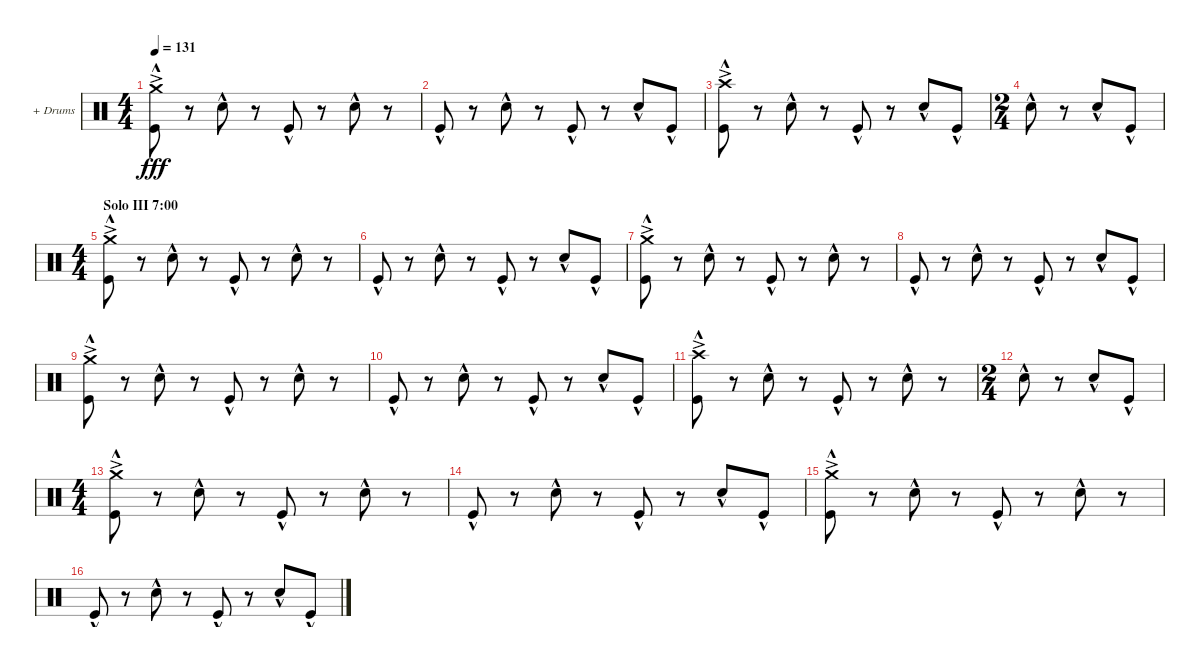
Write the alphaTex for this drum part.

\defaultSystemsLayout 4
\bracketExtendMode groupsimilarinstruments
\firstSystemTrackNameOrientation horizontal
\otherSystemsTrackNameOrientation horizontal
\track ("+ Drums" "+ Drums") {instrument percussion}
\staff {score}
\articulation defaults
\ts (4 4)
\tempo 131
\clef neutral
\ks c
("Crash medium (hit)"{ac} "Kick (hit)"{hac}).8{dy fff} r.8 "Snare (hit) 2"{hac}.8 r.8 "Kick (hit)"{hac}.8 r.8 "Snare (hit) 2"{hac}.8 r.8 |
"Kick (hit)"{hac}.8 r.8 "Snare (hit) 2"{hac}.8 r.8 "Kick (hit)"{hac}.8 r.8 "Snare (hit) 2"{hac}.8 "Kick (hit)"{hac}.8 |
("Crash high (hit)"{ac} "Kick (hit)"{hac}).8 r.8 "Snare (hit) 2"{hac}.8 r.8 "Kick (hit)"{hac}.8 r.8 "Snare (hit) 2"{hac}.8 "Kick (hit)"{hac}.8 |
\ts (2 4)
"Snare (hit) 2"{hac}.8 r.8 "Snare (hit) 2"{hac}.8 "Kick (hit)"{hac}.8 |
\ts (4 4)
\section ("" "Solo III 7:00")
("Crash medium (hit)"{ac} "Kick (hit)"{hac}).8 r.8 "Snare (hit) 2"{hac}.8 r.8 "Kick (hit)"{hac}.8 r.8 "Snare (hit) 2"{hac}.8 r.8 |
"Kick (hit)"{hac}.8 r.8 "Snare (hit) 2"{hac}.8 r.8 "Kick (hit)"{hac}.8 r.8 "Snare (hit) 2"{hac}.8 "Kick (hit)"{hac}.8 |
("Crash medium (hit)"{ac} "Kick (hit)"{hac}).8 r.8 "Snare (hit) 2"{hac}.8 r.8 "Kick (hit)"{hac}.8 r.8 "Snare (hit) 2"{hac}.8 r.8 |
"Kick (hit)"{hac}.8 r.8 "Snare (hit) 2"{hac}.8 r.8 "Kick (hit)"{hac}.8 r.8 "Snare (hit) 2"{hac}.8 "Kick (hit)"{hac}.8 |
("Crash medium (hit)"{ac} "Kick (hit)"{hac}).8 r.8 "Snare (hit) 2"{hac}.8 r.8 "Kick (hit)"{hac}.8 r.8 "Snare (hit) 2"{hac}.8 r.8 |
"Kick (hit)"{hac}.8 r.8 "Snare (hit) 2"{hac}.8 r.8 "Kick (hit)"{hac}.8 r.8 "Snare (hit) 2"{hac}.8 "Kick (hit)"{hac}.8 |
("Crash high (hit)"{ac} "Kick (hit)"{hac}).8 r.8 "Snare (hit) 2"{hac}.8 r.8 "Kick (hit)"{hac}.8 r.8 "Snare (hit) 2"{hac}.8 r.8 |
\ts (2 4)
"Snare (hit) 2"{hac}.8 r.8 "Snare (hit) 2"{hac}.8 "Kick (hit)"{hac}.8 |
\ts (4 4)
("Crash medium (hit)"{ac} "Kick (hit)"{hac}).8 r.8 "Snare (hit) 2"{hac}.8 r.8 "Kick (hit)"{hac}.8 r.8 "Snare (hit) 2"{hac}.8 r.8 |
"Kick (hit)"{hac}.8 r.8 "Snare (hit) 2"{hac}.8 r.8 "Kick (hit)"{hac}.8 r.8 "Snare (hit) 2"{hac}.8 "Kick (hit)"{hac}.8 |
("Crash medium (hit)"{ac} "Kick (hit)"{hac}).8 r.8 "Snare (hit) 2"{hac}.8 r.8 "Kick (hit)"{hac}.8 r.8 "Snare (hit) 2"{hac}.8 r.8 |
"Kick (hit)"{hac}.8 r.8 "Snare (hit) 2"{hac}.8 r.8 "Kick (hit)"{hac}.8 r.8 "Snare (hit) 2"{hac}.8 "Kick (hit)"{hac}.8
